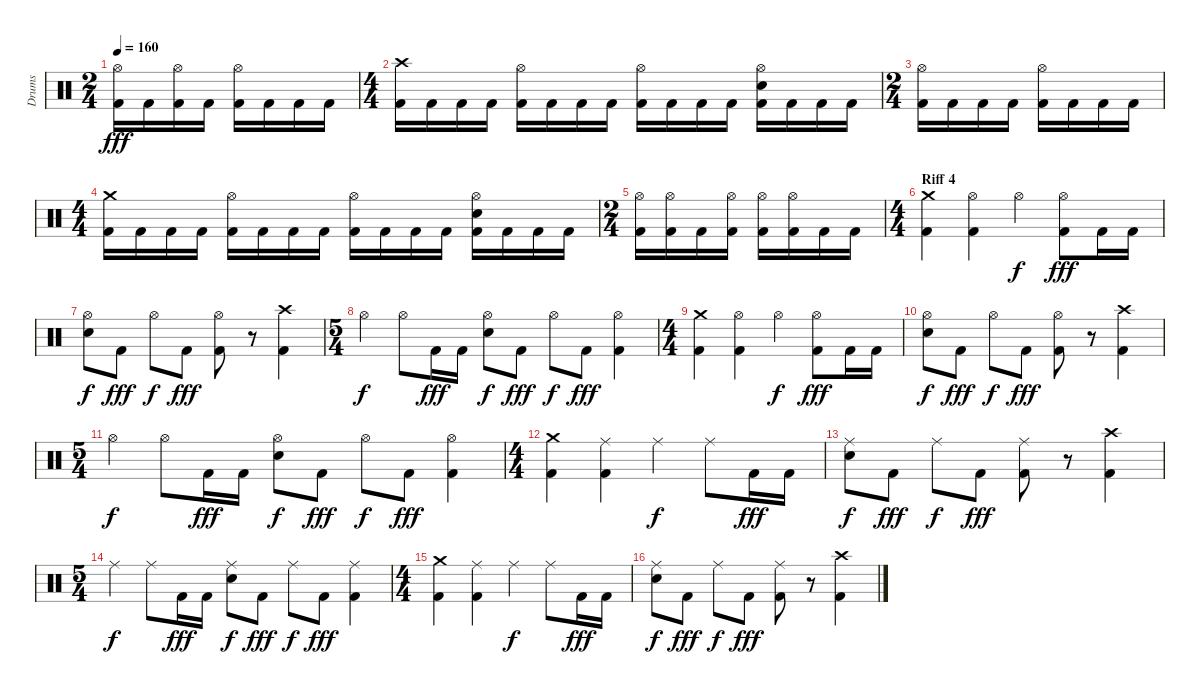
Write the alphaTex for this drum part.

\track ("Drums" "Drums") {instrument percussion}
\staff {score}
\articulation defaults
\ts (2 4)
\tempo 160
\clef neutral
\ks c
("Hi-Hat (open)" "Kick (hit) 2").16{dy fff} "Kick (hit) 2".16 ("Hi-Hat (open)" "Kick (hit) 2").16 "Kick (hit) 2".16 ("Hi-Hat (open)" "Kick (hit) 2").16 "Kick (hit) 2".16 "Kick (hit) 2".16 "Kick (hit) 2".16 |
\ts (4 4)
("Crash high (hit)" "Kick (hit) 2").16 "Kick (hit) 2".16 "Kick (hit) 2".16 "Kick (hit) 2".16 ("Hi-Hat (open)" "Kick (hit) 2").16 "Kick (hit) 2".16 "Kick (hit) 2".16 "Kick (hit) 2".16 ("Hi-Hat (open)" "Kick (hit) 2").16 "Kick (hit) 2".16 "Kick (hit) 2".16 "Kick (hit) 2".16 ("Hi-Hat (open)" "Electric Snare (hit)" "Kick (hit) 2").16 "Kick (hit) 2".16 "Kick (hit) 2".16 "Kick (hit) 2".16 |
\ts (2 4)
("Hi-Hat (open)" "Kick (hit) 2").16 "Kick (hit) 2".16 "Kick (hit) 2".16 "Kick (hit) 2".16 ("Hi-Hat (open)" "Kick (hit) 2").16 "Kick (hit) 2".16 "Kick (hit) 2".16 "Kick (hit) 2".16 |
\ts (4 4)
("Crash medium (hit)" "Kick (hit) 2").16 "Kick (hit) 2".16 "Kick (hit) 2".16 "Kick (hit) 2".16 ("Hi-Hat (open)" "Kick (hit) 2").16 "Kick (hit) 2".16 "Kick (hit) 2".16 "Kick (hit) 2".16 ("Hi-Hat (open)" "Kick (hit) 2").16 "Kick (hit) 2".16 "Kick (hit) 2".16 "Kick (hit) 2".16 ("Hi-Hat (open)" "Electric Snare (hit)" "Kick (hit) 2").16 "Kick (hit) 2".16 "Kick (hit) 2".16 "Kick (hit) 2".16 |
\ts (2 4)
("Hi-Hat (open)" "Kick (hit) 2").16 ("Hi-Hat (open)" "Kick (hit) 2").16 "Kick (hit) 2".16 ("Hi-Hat (open)" "Kick (hit) 2").16 ("Hi-Hat (open)" "Kick (hit) 2").16 ("Hi-Hat (open)" "Kick (hit) 2").16 "Kick (hit) 2".16 "Kick (hit) 2".16 |
\ts (4 4)
\section ("" "Riff 4")
("Crash medium (hit)" "Kick (hit) 2").4 ("Hi-Hat (open)" "Kick (hit) 2").4 "Hi-Hat (open)".4{dy f} ("Hi-Hat (open)" "Kick (hit) 2").8{dy fff} "Kick (hit) 2".16 "Kick (hit) 2".16 |
("Hi-Hat (open)" "Electric Snare (hit)").8{dy f} "Kick (hit) 2".8{dy fff} "Hi-Hat (open)".8{dy f} "Kick (hit) 2".8{dy fff} ("Hi-Hat (open)" "Kick (hit) 2").8 r.8 ("Crash high (hit)" "Kick (hit) 2").4 |
\ts (5 4)
"Hi-Hat (open)".4{dy f} "Hi-Hat (open)".8 "Kick (hit) 2".16{dy fff} "Kick (hit) 2".16 ("Hi-Hat (open)" "Electric Snare (hit)").8{dy f} "Kick (hit) 2".8{dy fff} "Hi-Hat (open)".8{dy f} "Kick (hit) 2".8{dy fff} ("Hi-Hat (open)" "Kick (hit) 2").4 |
\ts (4 4)
("Crash medium (hit)" "Kick (hit) 2").4 ("Hi-Hat (open)" "Kick (hit) 2").4 "Hi-Hat (open)".4{dy f} ("Hi-Hat (open)" "Kick (hit) 2").8{dy fff} "Kick (hit) 2".16 "Kick (hit) 2".16 |
("Hi-Hat (open)" "Electric Snare (hit)").8{dy f} "Kick (hit) 2".8{dy fff} "Hi-Hat (open)".8{dy f} "Kick (hit) 2".8{dy fff} ("Hi-Hat (open)" "Kick (hit) 2").8 r.8 ("Crash high (hit)" "Kick (hit) 2").4 |
\ts (5 4)
"Hi-Hat (open)".4{dy f} "Hi-Hat (open)".8 "Kick (hit) 2".16{dy fff} "Kick (hit) 2".16 ("Hi-Hat (open)" "Electric Snare (hit)").8{dy f} "Kick (hit) 2".8{dy fff} "Hi-Hat (open)".8{dy f} "Kick (hit) 2".8{dy fff} ("Hi-Hat (open)" "Kick (hit) 2").4 |
\ts (4 4)
("Crash medium (hit)" "Kick (hit) 2").4 ("Ride (middle)" "Kick (hit) 2").4 "Ride (middle)".4{dy f} "Ride (middle)".8 "Kick (hit) 2".16{dy fff} "Kick (hit) 2".16 |
("Ride (middle)" "Electric Snare (hit)").8{dy f} "Kick (hit) 2".8{dy fff} "Ride (middle)".8{dy f} "Kick (hit) 2".8{dy fff} ("Ride (middle)" "Kick (hit) 2").8 r.8 ("Crash high (hit)" "Kick (hit) 2").4 |
\ts (5 4)
"Ride (middle)".4{dy f} "Ride (middle)".8 "Kick (hit) 2".16{dy fff} "Kick (hit) 2".16 ("Ride (middle)" "Electric Snare (hit)").8{dy f} "Kick (hit) 2".8{dy fff} "Ride (middle)".8{dy f} "Kick (hit) 2".8{dy fff} ("Ride (middle)" "Kick (hit) 2").4 |
\ts (4 4)
("Crash medium (hit)" "Kick (hit) 2").4 ("Ride (middle)" "Kick (hit) 2").4 "Ride (middle)".4{dy f} "Ride (middle)".8 "Kick (hit) 2".16{dy fff} "Kick (hit) 2".16 |
("Ride (middle)" "Electric Snare (hit)").8{dy f} "Kick (hit) 2".8{dy fff} "Ride (middle)".8{dy f} "Kick (hit) 2".8{dy fff} ("Ride (middle)" "Kick (hit) 2").8 r.8 ("Crash high (hit)" "Kick (hit) 2").4
